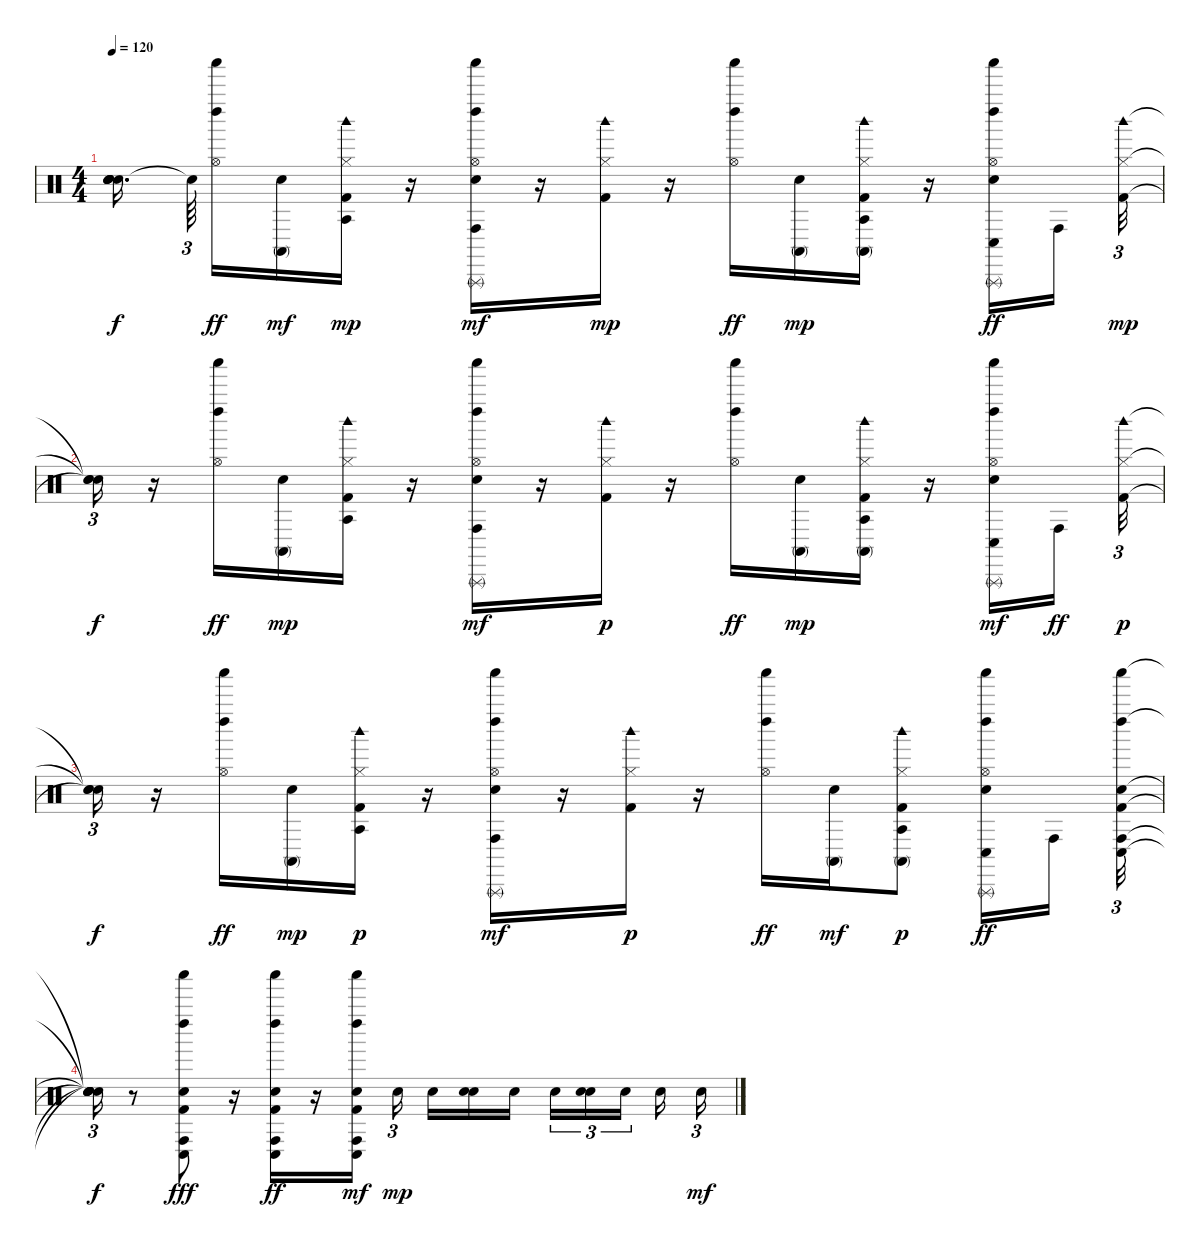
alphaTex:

\track "" {instrument percussion}
\staff {score}
\articulation defaults
\ts (4 4)
\tempo 120
\clef neutral
\ks c
("Snare (hit)"{t} "Snare (hit)"{t} "Snare (hit)"{t} "Snare (hit)"{t} "Snare (hit)"{t}).16{d dy f beam splitsecondary} "Snare (hit)"{t}.64{tu (3 2) beam splitsecondary} ("Shaker (hit)" "Left Maraca (hit)" "Hi-Hat (open)").16{dy ff} ("Electric Snare (hit)" "Conga high (mute)").16{dy mf} ("Kick (hit) 2" "Hi-Hat (closed)" "Agogo tow (hit)" "Woodblock high (hit)").16{dy mp} r.16 ("Shaker (hit)" "Left Maraca (hit)" "Electric Snare (hit)" "Conga high (hit)" "Hi-Hat (open)" "Triangle (rnute)").16{dy mf} r.16 ("Kick (hit) 2" "Hi-Hat (closed)" "Woodblock high (hit)").16{dy mp} r.16 ("Shaker (hit)" "Left Maraca (hit)" "Hi-Hat (open)").16{dy ff} ("Electric Snare (hit)" "Conga high (mute)").16{dy mp} ("Kick (hit) 2" "Conga high (mute)" "Hi-Hat (closed)" "Agogo tow (hit)" "Woodblock high (hit)").16 r.16 ("Shaker (hit)" "Left Maraca (hit)" "Electric Snare (hit)" "Conga low (hit)" "Hi-Hat (open)" "Triangle (rnute)").16{dy ff} "Conga high (hit)".16{beam splitsecondary} ("Kick (hit) 2" "Hi-Hat (closed)" "Woodblock high (hit)").32{tu (3 2) dy mp} |
("Snare (hit)"{t} "Snare (hit)"{t} "Snare (hit)"{t}).16{tu (3 2) dy f} r.16 ("Shaker (hit)" "Left Maraca (hit)" "Hi-Hat (open)").16{dy ff} ("Electric Snare (hit)" "Conga high (mute)").16{dy mp} ("Kick (hit) 2" "Hi-Hat (closed)" "Agogo tow (hit)" "Woodblock high (hit)").16 r.16 ("Shaker (hit)" "Left Maraca (hit)" "Electric Snare (hit)" "Conga high (hit)" "Hi-Hat (open)" "Triangle (rnute)").16{dy mf} r.16 ("Kick (hit) 2" "Hi-Hat (closed)" "Woodblock high (hit)").16{dy p} r.16 ("Shaker (hit)" "Left Maraca (hit)" "Hi-Hat (open)").16{dy ff} ("Electric Snare (hit)" "Conga high (mute)").16{dy mp} ("Kick (hit) 2" "Conga high (mute)" "Hi-Hat (closed)" "Agogo tow (hit)" "Woodblock high (hit)").16 r.16 ("Shaker (hit)" "Left Maraca (hit)" "Electric Snare (hit)" "Conga low (hit)" "Hi-Hat (open)" "Triangle (rnute)").16{dy mf} "Conga high (hit)".16{dy ff beam splitsecondary} ("Kick (hit) 2" "Hi-Hat (closed)" "Woodblock high (hit)").32{tu (3 2) dy p} |
("Snare (hit)"{t} "Snare (hit)"{t} "Snare (hit)"{t}).16{tu (3 2) dy f} r.16 ("Shaker (hit)" "Left Maraca (hit)" "Hi-Hat (open)").16{dy ff} ("Electric Snare (hit)" "Conga high (mute)").16{dy mp} ("Kick (hit) 2" "Hi-Hat (closed)" "Agogo tow (hit)" "Woodblock high (hit)").16{dy p} r.16 ("Shaker (hit)" "Left Maraca (hit)" "Electric Snare (hit)" "Conga high (hit)" "Hi-Hat (open)" "Triangle (rnute)").16{dy mf} r.16 ("Kick (hit) 2" "Hi-Hat (closed)" "Woodblock high (hit)").16{dy p} r.16 ("Shaker (hit)" "Left Maraca (hit)" "Hi-Hat (open)").16{dy ff} ("Electric Snare (hit)" "Conga high (mute)").16{dy mf} ("Kick (hit) 2" "Conga high (mute)" "Hi-Hat (closed)" "Agogo tow (hit)" "Woodblock high (hit)").8{dy p} ("Shaker (hit)" "Left Maraca (hit)" "Electric Snare (hit)" "Conga low (hit)" "Hi-Hat (open)" "Triangle (rnute)").16{dy ff} "Conga high (hit)".16{beam splitsecondary} ("Kick (hit) 2" "Shaker (hit)" "Left Maraca (hit)" "Electric Snare (hit)" "Conga low (hit)" "Conga high (hit)").32{tu (3 2)} |
("Snare (hit)"{t} "Snare (hit)"{t} "Snare (hit)"{t} "Snare (hit)"{t} "Snare (hit)"{t} "Snare (hit)"{t}).16{tu (3 2) dy f} r.8 ("Kick (hit) 2" "Shaker (hit)" "Left Maraca (hit)" "Electric Snare (hit)" "Conga low (hit)" "Conga high (hit)").8{dy fff} r.16 ("Kick (hit) 2" "Shaker (hit)" "Left Maraca (hit)" "Electric Snare (hit)" "Conga low (hit)" "Conga high (hit)").16{dy ff} r.16 ("Kick (hit) 2" "Shaker (hit)" "Left Maraca (hit)" "Electric Snare (hit)" "Conga high (hit)" "Conga low (hit)").16{dy mf} "Snare (hit) 2".16{tu (3 2) dy mp beam splitsecondary} "Snare (hit) 2".16 ("Snare (hit) 2" "Snare (hit) 2").16 "Snare (hit) 2".16 "Snare (hit) 2".16{tu (3 2)} ("Snare (hit) 2" "Snare (hit) 2").16{tu (3 2)} "Snare (hit) 2".16{tu (3 2) beam splitsecondary} "Snare (hit) 2".16 "Snare (hit) 2".16{tu (3 2) dy mf}
